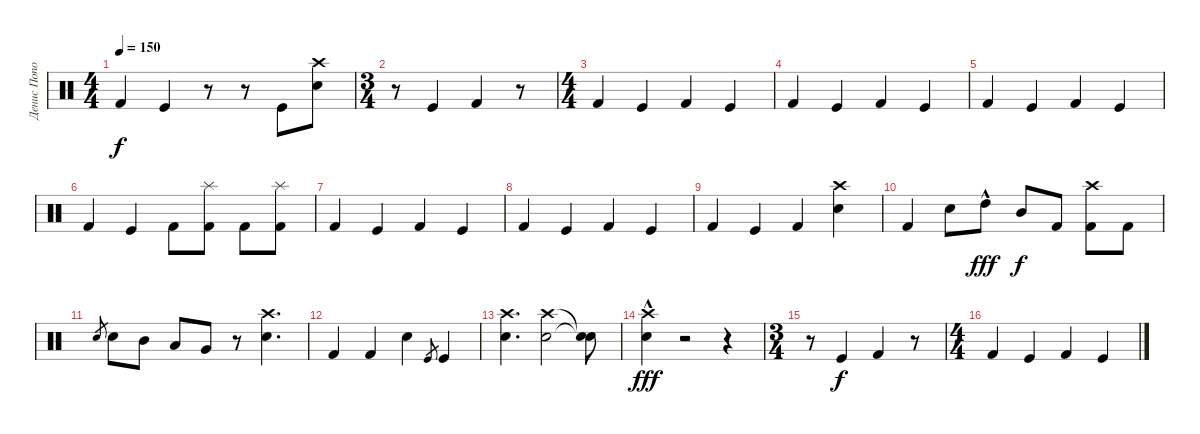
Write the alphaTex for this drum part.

\track ("Денис Попов" "Денис Попо") {instrument percussion}
\staff
\articulation defaults
\ts (4 4)
\tempo 150
\clef neutral
\ks c "Kick (hit) 2".4{dy f} "Kick (hit)".4
r.8 r.8 "Kick (hit)".8 ("Crash high (hit)" "Snare (hit) 2").8 |
\ts (3 4)
r.8 "Kick (hit)".4 "Kick (hit) 2".4 r.8 |
\ts (4 4)
"Kick (hit) 2".4 "Kick (hit)".4 "Kick (hit) 2".4 "Kick (hit)".4 |
"Kick (hit) 2".4 "Kick (hit)".4 "Kick (hit) 2".4 "Kick (hit)".4 |
"Kick (hit) 2".4 "Kick (hit)".4 "Kick (hit) 2".4 "Kick (hit)".4 |
"Kick (hit) 2".4 "Kick (hit)".4 "Kick (hit) 2".8 ("Splash (hit)" "Kick (hit) 2").8 "Kick (hit) 2".8 ("Splash (hit)" "Kick (hit) 2").8 |
"Kick (hit) 2".4 "Kick (hit)".4 "Kick (hit) 2".4 "Kick (hit)".4 |
"Kick (hit) 2".4 "Kick (hit)".4 "Kick (hit) 2".4 "Kick (hit)".4 |
"Kick (hit) 2".4 "Kick (hit)".4 "Kick (hit) 2".4 ("Crash high (hit)" "Snare (hit) 2").4 |
"Kick (hit) 2".4 "Snare (hit) 2".8 "High Tom (hit)"{hac}.8{dy fff} "Mid Tom (hit)".8{dy f} "Kick (hit) 2".8 ("Crash high (hit)" "Kick (hit) 2").8 "Kick (hit) 2".8 |
"Electric Snare (hit)".8{gr} "Electric Snare (hit)".8 "Mid Tom (hit)".8 "Low Tom (hit)".8 "Very Low Tom (hit)".8 r.8 ("Crash high (hit)" "Snare (hit) 2").4{d} |
"Kick (hit) 2".4 "Kick (hit) 2".4 "Snare (hit) 2".4 "Kick (hit)".8{gr} "Kick (hit)".4 |
("Crash high (hit)" "Electric Snare (hit)").4{d} ("Crash high (hit)" "Snare (hit) 2").2 ("Snare (hit)"{t} "Snare (hit)"{t}).8 |
("Crash high (hit)"{hac} "Electric Snare (hit)").4{dy fff} r.2 r.4 |
\ts (3 4)
r.8 "Kick (hit)".4{dy f} "Kick (hit) 2".4 r.8 |
\ts (4 4)
"Kick (hit) 2".4 "Kick (hit)".4 "Kick (hit) 2".4 "Kick (hit)".4
